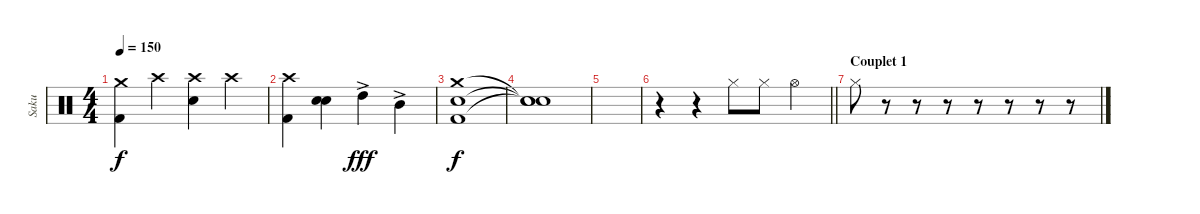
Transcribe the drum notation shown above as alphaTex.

\track ("Saku" "Saku") {instrument percussion}
\staff {score}
\articulation defaults
\ts (4 4)
\tempo 150
\clef neutral
\ks c
("Crash medium (hit)" "Kick (hit) 2").4{dy f} "Crash high (hit)".4 ("Crash high (hit)" "Electric Snare (hit)").4 "Crash high (hit)".4 |
("Crash high (hit)" "Kick (hit) 2").4 ("Electric Snare (hit)" "Electric Snare (hit)").4{bu 120} "High Tom (hit)"{ac}.4{dy fff} "Mid Tom (hit)"{ac}.4 |
("Crash medium (hit)" "Electric Snare (hit)" "Kick (hit) 2").1{dy f} |
("Snare (hit)"{t} "Snare (hit)"{t} "Snare (hit)"{t}).1 |
|
\barLineRight lightlight
r.4 r.4 "Hi-Hat (closed)".8 "Hi-Hat (closed)".8 "Hi-Hat (open)".4 |
\section ("" "Couplet 1")
"Hi-Hat (closed)".8 r.8 r.8 r.8 r.8 r.8 r.8 r.8
